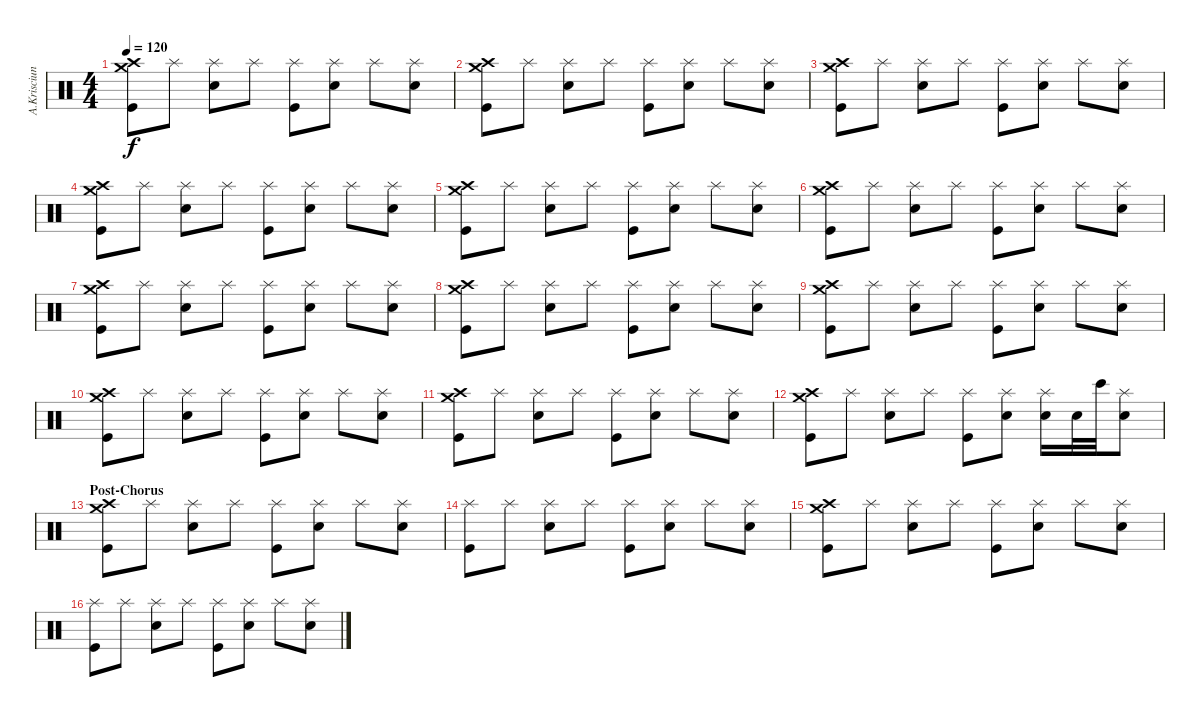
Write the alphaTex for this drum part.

\track ("A.Krisciunas" "A.Krisciun") {instrument percussion}
\staff {score}
\articulation defaults
\ts (4 4)
\tempo 120
\clef neutral
\ks c
("Crash medium (hit)" "Crash high (hit)" "Kick (hit)").8{dy f} "Splash (hit)".8 ("Splash (hit)" "Electric Snare (hit)").8 "Splash (hit)".8 ("Splash (hit)" "Kick (hit)").8 ("Splash (hit)" "Electric Snare (hit)").8 "Splash (hit)".8 ("Splash (hit)" "Electric Snare (hit)").8 |
("Crash medium (hit)" "Crash high (hit)" "Kick (hit)").8 "Splash (hit)".8 ("Splash (hit)" "Electric Snare (hit)").8 "Splash (hit)".8 ("Splash (hit)" "Kick (hit)").8 ("Splash (hit)" "Electric Snare (hit)").8 "Splash (hit)".8 ("Splash (hit)" "Electric Snare (hit)").8 |
("Crash medium (hit)" "Crash high (hit)" "Kick (hit)").8 "Splash (hit)".8 ("Splash (hit)" "Electric Snare (hit)").8 "Splash (hit)".8 ("Splash (hit)" "Kick (hit)").8 ("Splash (hit)" "Electric Snare (hit)").8 "Splash (hit)".8 ("Splash (hit)" "Electric Snare (hit)").8 |
("Crash medium (hit)" "Crash high (hit)" "Kick (hit)").8 "Splash (hit)".8 ("Splash (hit)" "Electric Snare (hit)").8 "Splash (hit)".8 ("Splash (hit)" "Kick (hit)").8 ("Splash (hit)" "Electric Snare (hit)").8 "Splash (hit)".8 ("Splash (hit)" "Electric Snare (hit)").8 |
("Crash medium (hit)" "Crash high (hit)" "Kick (hit)").8 "Splash (hit)".8 ("Splash (hit)" "Electric Snare (hit)").8 "Splash (hit)".8 ("Splash (hit)" "Kick (hit)").8 ("Splash (hit)" "Electric Snare (hit)").8 "Splash (hit)".8 ("Splash (hit)" "Electric Snare (hit)").8 |
("Crash medium (hit)" "Crash high (hit)" "Kick (hit)").8 "Splash (hit)".8 ("Splash (hit)" "Electric Snare (hit)").8 "Splash (hit)".8 ("Splash (hit)" "Kick (hit)").8 ("Splash (hit)" "Electric Snare (hit)").8 "Splash (hit)".8 ("Splash (hit)" "Electric Snare (hit)").8 |
("Crash medium (hit)" "Crash high (hit)" "Kick (hit)").8 "Splash (hit)".8 ("Splash (hit)" "Electric Snare (hit)").8 "Splash (hit)".8 ("Splash (hit)" "Kick (hit)").8 ("Splash (hit)" "Electric Snare (hit)").8 "Splash (hit)".8 ("Splash (hit)" "Electric Snare (hit)").8 |
("Crash medium (hit)" "Crash high (hit)" "Kick (hit)").8 "Splash (hit)".8 ("Splash (hit)" "Electric Snare (hit)").8 "Splash (hit)".8 ("Splash (hit)" "Kick (hit)").8 ("Splash (hit)" "Electric Snare (hit)").8 "Splash (hit)".8 ("Splash (hit)" "Electric Snare (hit)").8 |
("Crash medium (hit)" "Crash high (hit)" "Kick (hit)").8 "Splash (hit)".8 ("Splash (hit)" "Electric Snare (hit)").8 "Splash (hit)".8 ("Splash (hit)" "Kick (hit)").8 ("Splash (hit)" "Electric Snare (hit)").8 "Splash (hit)".8 ("Splash (hit)" "Electric Snare (hit)").8 |
("Crash medium (hit)" "Crash high (hit)" "Kick (hit)").8 "Splash (hit)".8 ("Splash (hit)" "Electric Snare (hit)").8 "Splash (hit)".8 ("Splash (hit)" "Kick (hit)").8 ("Splash (hit)" "Electric Snare (hit)").8 "Splash (hit)".8 ("Splash (hit)" "Electric Snare (hit)").8 |
("Crash medium (hit)" "Crash high (hit)" "Kick (hit)").8 "Splash (hit)".8 ("Splash (hit)" "Electric Snare (hit)").8 "Splash (hit)".8 ("Splash (hit)" "Kick (hit)").8 ("Splash (hit)" "Electric Snare (hit)").8 "Splash (hit)".8 ("Splash (hit)" "Electric Snare (hit)").8 |
("Crash medium (hit)" "Crash high (hit)" "Kick (hit)").8 "Splash (hit)".8 ("Splash (hit)" "Electric Snare (hit)").8 "Splash (hit)".8 ("Splash (hit)" "Kick (hit)").8 ("Splash (hit)" "Electric Snare (hit)").8 ("Splash (hit)" "Electric Snare (hit)").16 "Electric Snare (hit)".32 "Bongo High (hit)".32 ("Splash (hit)" "Electric Snare (hit)").8 |
\section ("" "Post-Chorus")
("Crash medium (hit)" "Crash high (hit)" "Kick (hit)").8 "Splash (hit)".8 ("Splash (hit)" "Electric Snare (hit)").8 "Splash (hit)".8 ("Splash (hit)" "Kick (hit)").8 ("Splash (hit)" "Electric Snare (hit)").8 "Splash (hit)".8 ("Splash (hit)" "Electric Snare (hit)").8 |
("Splash (hit)" "Kick (hit)").8 "Splash (hit)".8 ("Splash (hit)" "Electric Snare (hit)").8 "Splash (hit)".8 ("Splash (hit)" "Kick (hit)").8 ("Splash (hit)" "Electric Snare (hit)").8 "Splash (hit)".8 ("Splash (hit)" "Electric Snare (hit)").8 |
("Crash medium (hit)" "Crash high (hit)" "Kick (hit)").8 "Splash (hit)".8 ("Splash (hit)" "Electric Snare (hit)").8 "Splash (hit)".8 ("Splash (hit)" "Kick (hit)").8 ("Splash (hit)" "Electric Snare (hit)").8 "Splash (hit)".8 ("Splash (hit)" "Electric Snare (hit)").8 |
("Splash (hit)" "Kick (hit)").8 "Splash (hit)".8 ("Splash (hit)" "Electric Snare (hit)").8 "Splash (hit)".8 ("Splash (hit)" "Kick (hit)").8 ("Splash (hit)" "Electric Snare (hit)").8 "Splash (hit)".8 ("Splash (hit)" "Electric Snare (hit)").8
